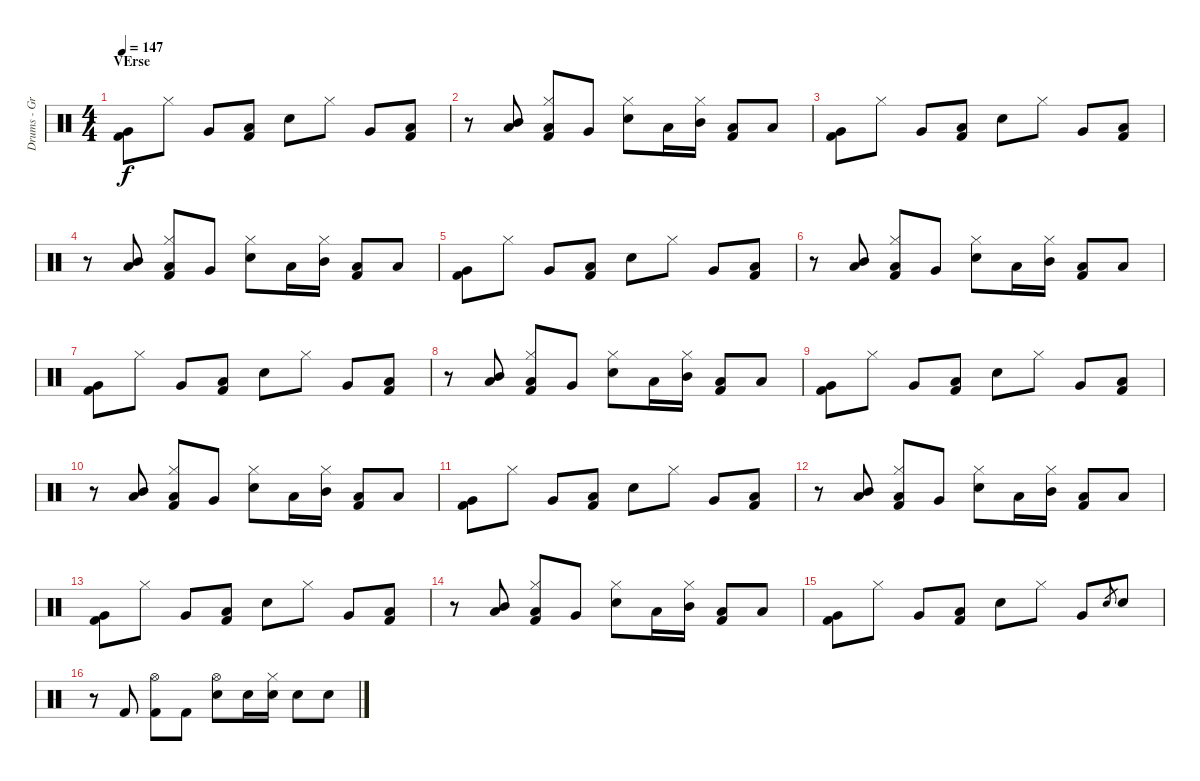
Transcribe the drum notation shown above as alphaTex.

\track ("Drums - Greg Upchurch" "Drums - Gr") {instrument percussion}
\staff {score}
\articulation defaults
\ts (4 4)
\section ("" "VErse")
\tempo 147
\clef neutral
\ks c
("Very Low Tom (hit)" "Kick (hit) 2").8{dy f} "Hi-Hat (closed)".8 "Very Low Tom (hit)".8 ("Low Tom (hit)" "Kick (hit) 2").8 "Electric Snare (hit)".8 "Hi-Hat (closed)".8 "Very Low Tom (hit)".8 ("Low Tom (hit)" "Kick (hit) 2").8 |
r.8 ("Low Tom (hit)" "Mid Tom (hit)").8 ("Hi-Hat (closed)" "Kick (hit) 2" "Low Tom (hit)").8 "Very Low Tom (hit)".8 ("Hi-Hat (closed)" "Electric Snare (hit)").8 "Low Tom (hit)".16 ("Hi-Hat (closed)" "Mid Tom (hit)").16 ("Kick (hit) 2" "Low Tom (hit)").8 "Low Tom (hit)".8 |
("Very Low Tom (hit)" "Kick (hit) 2").8 "Hi-Hat (closed)".8 "Very Low Tom (hit)".8 ("Low Tom (hit)" "Kick (hit) 2").8 "Electric Snare (hit)".8 "Hi-Hat (closed)".8 "Very Low Tom (hit)".8 ("Low Tom (hit)" "Kick (hit) 2").8 |
r.8 ("Low Tom (hit)" "Mid Tom (hit)").8 ("Hi-Hat (closed)" "Kick (hit) 2" "Low Tom (hit)").8 "Very Low Tom (hit)".8 ("Hi-Hat (closed)" "Electric Snare (hit)").8 "Low Tom (hit)".16 ("Hi-Hat (closed)" "Mid Tom (hit)").16 ("Kick (hit) 2" "Low Tom (hit)").8 "Low Tom (hit)".8 |
("Very Low Tom (hit)" "Kick (hit) 2").8 "Hi-Hat (closed)".8 "Very Low Tom (hit)".8 ("Low Tom (hit)" "Kick (hit) 2").8 "Electric Snare (hit)".8 "Hi-Hat (closed)".8 "Very Low Tom (hit)".8 ("Low Tom (hit)" "Kick (hit) 2").8 |
r.8 ("Low Tom (hit)" "Mid Tom (hit)").8 ("Hi-Hat (closed)" "Kick (hit) 2" "Low Tom (hit)").8 "Very Low Tom (hit)".8 ("Hi-Hat (closed)" "Electric Snare (hit)").8 "Low Tom (hit)".16 ("Hi-Hat (closed)" "Mid Tom (hit)").16 ("Kick (hit) 2" "Low Tom (hit)").8 "Low Tom (hit)".8 |
("Very Low Tom (hit)" "Kick (hit) 2").8 "Hi-Hat (closed)".8 "Very Low Tom (hit)".8 ("Low Tom (hit)" "Kick (hit) 2").8 "Electric Snare (hit)".8 "Hi-Hat (closed)".8 "Very Low Tom (hit)".8 ("Low Tom (hit)" "Kick (hit) 2").8 |
r.8 ("Low Tom (hit)" "Mid Tom (hit)").8 ("Hi-Hat (closed)" "Kick (hit) 2" "Low Tom (hit)").8 "Very Low Tom (hit)".8 ("Hi-Hat (closed)" "Electric Snare (hit)").8 "Low Tom (hit)".16 ("Hi-Hat (closed)" "Mid Tom (hit)").16 ("Kick (hit) 2" "Low Tom (hit)").8 "Low Tom (hit)".8 |
("Very Low Tom (hit)" "Kick (hit) 2").8 "Hi-Hat (closed)".8 "Very Low Tom (hit)".8 ("Low Tom (hit)" "Kick (hit) 2").8 "Electric Snare (hit)".8 "Hi-Hat (closed)".8 "Very Low Tom (hit)".8 ("Low Tom (hit)" "Kick (hit) 2").8 |
r.8 ("Low Tom (hit)" "Mid Tom (hit)").8 ("Hi-Hat (closed)" "Kick (hit) 2" "Low Tom (hit)").8 "Very Low Tom (hit)".8 ("Hi-Hat (closed)" "Electric Snare (hit)").8 "Low Tom (hit)".16 ("Hi-Hat (closed)" "Mid Tom (hit)").16 ("Kick (hit) 2" "Low Tom (hit)").8 "Low Tom (hit)".8 |
("Very Low Tom (hit)" "Kick (hit) 2").8 "Hi-Hat (closed)".8 "Very Low Tom (hit)".8 ("Low Tom (hit)" "Kick (hit) 2").8 "Electric Snare (hit)".8 "Hi-Hat (closed)".8 "Very Low Tom (hit)".8 ("Low Tom (hit)" "Kick (hit) 2").8 |
r.8 ("Low Tom (hit)" "Mid Tom (hit)").8 ("Hi-Hat (closed)" "Kick (hit) 2" "Low Tom (hit)").8 "Very Low Tom (hit)".8 ("Hi-Hat (closed)" "Electric Snare (hit)").8 "Low Tom (hit)".16 ("Hi-Hat (closed)" "Mid Tom (hit)").16 ("Kick (hit) 2" "Low Tom (hit)").8 "Low Tom (hit)".8 |
("Very Low Tom (hit)" "Kick (hit) 2").8 "Hi-Hat (closed)".8 "Very Low Tom (hit)".8 ("Low Tom (hit)" "Kick (hit) 2").8 "Electric Snare (hit)".8 "Hi-Hat (closed)".8 "Very Low Tom (hit)".8 ("Low Tom (hit)" "Kick (hit) 2").8 |
r.8 ("Low Tom (hit)" "Mid Tom (hit)").8 ("Hi-Hat (closed)" "Kick (hit) 2" "Low Tom (hit)").8 "Very Low Tom (hit)".8 ("Hi-Hat (closed)" "Electric Snare (hit)").8 "Low Tom (hit)".16 ("Hi-Hat (closed)" "Mid Tom (hit)").16 ("Kick (hit) 2" "Low Tom (hit)").8 "Low Tom (hit)".8 |
("Very Low Tom (hit)" "Kick (hit) 2").8 "Hi-Hat (closed)".8 "Very Low Tom (hit)".8 ("Low Tom (hit)" "Kick (hit) 2").8 "Electric Snare (hit)".8 "Hi-Hat (closed)".8 "Very Low Tom (hit)".8 "Electric Snare (hit)".8{gr} "Electric Snare (hit)".8 |
r.8 "Kick (hit) 2".8 ("Hi-Hat (open)" "Kick (hit) 2").8 "Kick (hit) 2".8 ("Hi-Hat (open)" "Electric Snare (hit)").8 "Electric Snare (hit)".16 ("Hi-Hat (closed)" "Electric Snare (hit)").16 "Electric Snare (hit)".8 "Electric Snare (hit)".8
